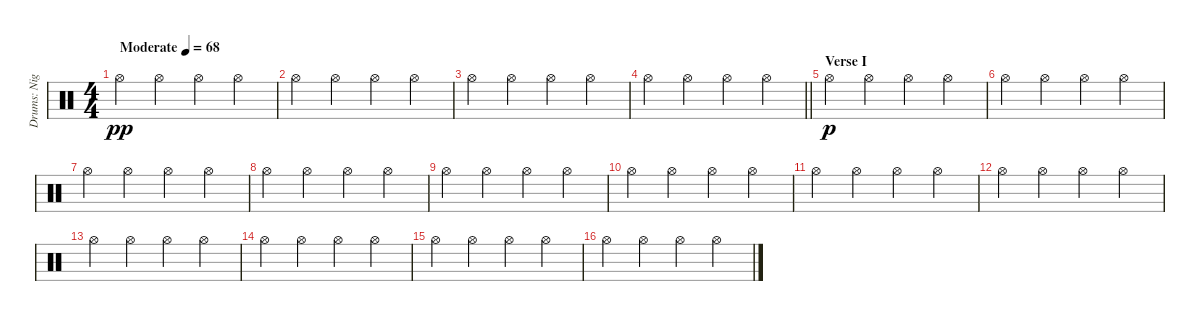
\track ("Drums: Nigel Olsson" "Drums: Nig") {instrument percussion}
\staff {score}
\articulation defaults
\ts (4 4)
\tempo (68 "Moderate")
\clef neutral
\ks c "Hi-Hat (open)".4{dy pp} "Hi-Hat (open)".4 "Hi-Hat (open)".4 "Hi-Hat (open)".4
|
"Hi-Hat (open)".4 "Hi-Hat (open)".4 "Hi-Hat (open)".4 "Hi-Hat (open)".4 |
"Hi-Hat (open)".4 "Hi-Hat (open)".4 "Hi-Hat (open)".4 "Hi-Hat (open)".4 |
\barLineRight lightlight "Hi-Hat (open)".4 "Hi-Hat (open)".4 "Hi-Hat (open)".4 "Hi-Hat (open)".4
|
\section ("" "Verse I")
"Hi-Hat (open)".4{dy p} "Hi-Hat (open)".4 "Hi-Hat (open)".4 "Hi-Hat (open)".4 |
"Hi-Hat (open)".4 "Hi-Hat (open)".4 "Hi-Hat (open)".4 "Hi-Hat (open)".4 |
"Hi-Hat (open)".4 "Hi-Hat (open)".4 "Hi-Hat (open)".4 "Hi-Hat (open)".4 |
"Hi-Hat (open)".4 "Hi-Hat (open)".4 "Hi-Hat (open)".4 "Hi-Hat (open)".4 |
"Hi-Hat (open)".4 "Hi-Hat (open)".4 "Hi-Hat (open)".4 "Hi-Hat (open)".4 |
"Hi-Hat (open)".4 "Hi-Hat (open)".4 "Hi-Hat (open)".4 "Hi-Hat (open)".4 |
"Hi-Hat (open)".4 "Hi-Hat (open)".4 "Hi-Hat (open)".4 "Hi-Hat (open)".4 |
"Hi-Hat (open)".4 "Hi-Hat (open)".4 "Hi-Hat (open)".4 "Hi-Hat (open)".4 |
"Hi-Hat (open)".4 "Hi-Hat (open)".4 "Hi-Hat (open)".4 "Hi-Hat (open)".4 |
"Hi-Hat (open)".4 "Hi-Hat (open)".4 "Hi-Hat (open)".4 "Hi-Hat (open)".4 |
"Hi-Hat (open)".4 "Hi-Hat (open)".4 "Hi-Hat (open)".4 "Hi-Hat (open)".4 |
"Hi-Hat (open)".4 "Hi-Hat (open)".4 "Hi-Hat (open)".4 "Hi-Hat (open)".4
